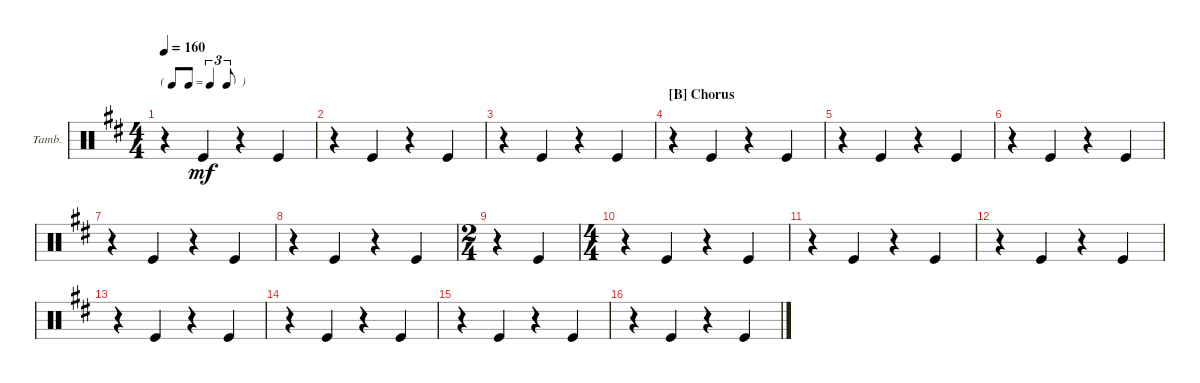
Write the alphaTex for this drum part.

\defaultSystemsLayout 4
\bracketExtendMode groupsimilarinstruments
\firstSystemTrackNameOrientation horizontal
\otherSystemsTrackNameOrientation horizontal
\track ("Tambourine" "Tamb.") {instrument percussion}
\staff {score}
\articulation defaults
\ts (4 4)
\tf triplet8th
\tempo 160
\clef neutral
\ks bminor
r.4{dy mf} "Kick (hit)".4 r.4 "Kick (hit)".4 |
r.4 "Kick (hit)".4 r.4 "Kick (hit)".4 |
r.4 "Kick (hit)".4 r.4 "Kick (hit)".4 |
\section ("B" "Chorus")
r.4 "Kick (hit)".4 r.4 "Kick (hit)".4 |
r.4 "Kick (hit)".4 r.4 "Kick (hit)".4 |
r.4 "Kick (hit)".4 r.4 "Kick (hit)".4 |
r.4 "Kick (hit)".4 r.4 "Kick (hit)".4 |
r.4 "Kick (hit)".4 r.4 "Kick (hit)".4 |
\ts (2 4)
r.4 "Kick (hit)".4 |
\ts (4 4)
r.4 "Kick (hit)".4 r.4 "Kick (hit)".4 |
r.4 "Kick (hit)".4 r.4 "Kick (hit)".4 |
r.4 "Kick (hit)".4 r.4 "Kick (hit)".4 |
r.4 "Kick (hit)".4 r.4 "Kick (hit)".4 |
r.4 "Kick (hit)".4 r.4 "Kick (hit)".4 |
r.4 "Kick (hit)".4 r.4 "Kick (hit)".4 |
r.4 "Kick (hit)".4 r.4 "Kick (hit)".4
